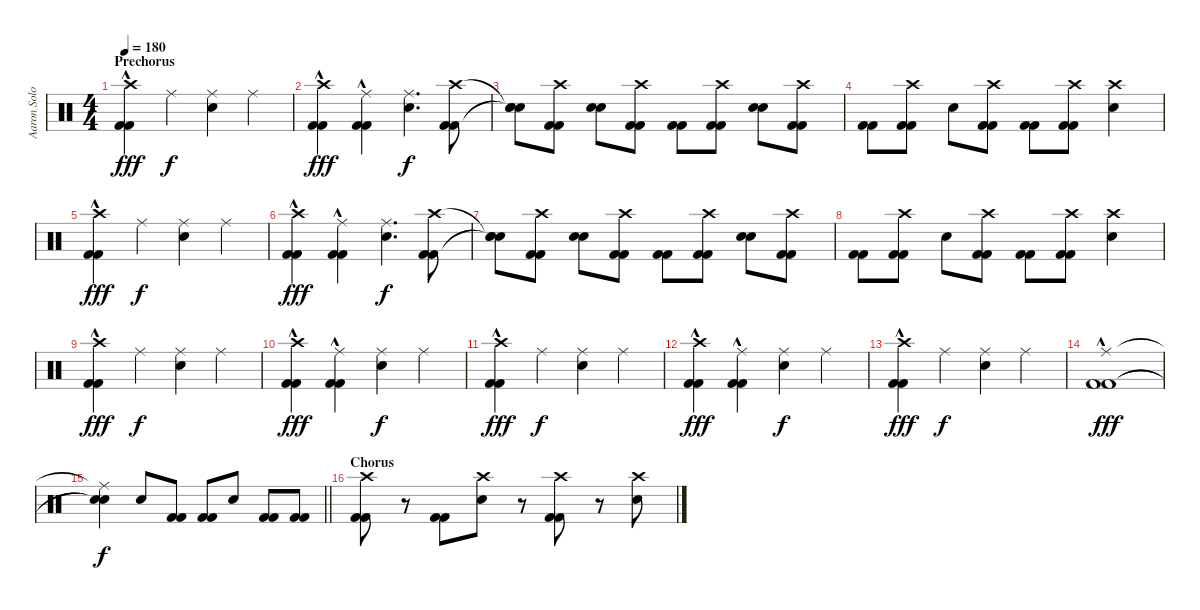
\track ("Aaron Solowoniuk" "Aaron Solo") {instrument percussion}
\staff {score}
\articulation defaults
\ts (4 4)
\section ("" "Prechorus")
\tempo 180
\clef neutral
\ks c
("Crash high (hit)" "Kick (hit) 2" "Kick (hit) 2"{hac}).4{dy fff} "Ride (middle)".4{dy f} ("Ride (middle)" "Electric Snare (hit)").4 "Ride (middle)".4 |
("Crash high (hit)" "Kick (hit) 2" "Kick (hit) 2"{hac}).4{dy fff} ("Ride (middle)" "Kick (hit) 2" "Kick (hit) 2"{hac}).4 ("Ride (middle)" "Electric Snare (hit)").4{d dy f} ("Crash high (hit)" "Kick (hit) 2" "Kick (hit) 2").8 |
("Snare (hit)"{t} "Snare (hit)"{t} "Snare (hit)"{t}).8 ("Crash high (hit)" "Kick (hit) 2" "Kick (hit) 2").8 ("Electric Snare (hit)" "Electric Snare (hit)").8 ("Crash high (hit)" "Kick (hit) 2" "Kick (hit) 2").8 ("Kick (hit) 2" "Kick (hit) 2").8 ("Crash high (hit)" "Kick (hit) 2" "Kick (hit) 2").8 ("Electric Snare (hit)" "Electric Snare (hit)").8 ("Crash high (hit)" "Kick (hit) 2" "Kick (hit) 2").8 |
("Kick (hit) 2" "Kick (hit) 2").8 ("Crash high (hit)" "Kick (hit) 2" "Kick (hit) 2").8 "Electric Snare (hit)".8 ("Crash high (hit)" "Kick (hit) 2" "Kick (hit) 2").8 ("Kick (hit) 2" "Kick (hit) 2").8 ("Crash high (hit)" "Kick (hit) 2" "Kick (hit) 2").8 ("Crash high (hit)" "Electric Snare (hit)").4 |
("Crash high (hit)" "Kick (hit) 2" "Kick (hit) 2"{hac}).4{dy fff} "Ride (middle)".4{dy f} ("Ride (middle)" "Electric Snare (hit)").4 "Ride (middle)".4 |
("Crash high (hit)" "Kick (hit) 2" "Kick (hit) 2"{hac}).4{dy fff} ("Ride (middle)" "Kick (hit) 2" "Kick (hit) 2"{hac}).4 ("Ride (middle)" "Electric Snare (hit)").4{d dy f} ("Crash high (hit)" "Kick (hit) 2" "Kick (hit) 2").8 |
("Snare (hit)"{t} "Snare (hit)"{t} "Snare (hit)"{t}).8 ("Crash high (hit)" "Kick (hit) 2" "Kick (hit) 2").8 ("Electric Snare (hit)" "Electric Snare (hit)").8 ("Crash high (hit)" "Kick (hit) 2" "Kick (hit) 2").8 ("Kick (hit) 2" "Kick (hit) 2").8 ("Crash high (hit)" "Kick (hit) 2" "Kick (hit) 2").8 ("Electric Snare (hit)" "Electric Snare (hit)").8 ("Crash high (hit)" "Kick (hit) 2" "Kick (hit) 2").8 |
("Kick (hit) 2" "Kick (hit) 2").8 ("Crash high (hit)" "Kick (hit) 2" "Kick (hit) 2").8 "Electric Snare (hit)".8 ("Crash high (hit)" "Kick (hit) 2" "Kick (hit) 2").8 ("Kick (hit) 2" "Kick (hit) 2").8 ("Crash high (hit)" "Kick (hit) 2" "Kick (hit) 2").8 ("Crash high (hit)" "Electric Snare (hit)").4 |
("Crash high (hit)" "Kick (hit) 2" "Kick (hit) 2"{hac}).4{dy fff} "Ride (middle)".4{dy f} ("Ride (middle)" "Electric Snare (hit)").4 "Ride (middle)".4 |
("Crash high (hit)" "Kick (hit) 2" "Kick (hit) 2"{hac}).4{dy fff} ("Ride (middle)" "Kick (hit) 2" "Kick (hit) 2"{hac}).4 ("Ride (middle)" "Electric Snare (hit)").4{dy f} "Ride (middle)".4 |
("Crash high (hit)" "Kick (hit) 2" "Kick (hit) 2"{hac}).4{dy fff} "Ride (middle)".4{dy f} ("Ride (middle)" "Electric Snare (hit)").4 "Ride (middle)".4 |
("Crash high (hit)" "Kick (hit) 2" "Kick (hit) 2"{hac}).4{dy fff} ("Ride (middle)" "Kick (hit) 2" "Kick (hit) 2"{hac}).4 ("Ride (middle)" "Electric Snare (hit)").4{dy f} "Ride (middle)".4 |
("Crash high (hit)" "Kick (hit) 2" "Kick (hit) 2"{hac}).4{dy fff} "Ride (middle)".4{dy f} ("Ride (middle)" "Electric Snare (hit)").4 "Ride (middle)".4 |
("Ride (middle)" "Kick (hit) 2" "Kick (hit) 2"{hac}).1{dy fff} |
\barLineRight lightlight
("Ride (middle)"{t} "Snare (hit)"{t} "Snare (hit)"{t}).4{dy f} "Electric Snare (hit)".8 ("Kick (hit) 2" "Kick (hit) 2").8 ("Kick (hit) 2" "Kick (hit) 2").8 "Electric Snare (hit)".8 ("Kick (hit) 2" "Kick (hit) 2").8 ("Kick (hit) 2" "Kick (hit) 2").8 |
\section ("" "Chorus")
("Crash high (hit)" "Kick (hit) 2" "Kick (hit) 2").8 r.8 ("Kick (hit) 2" "Kick (hit) 2").8 ("Crash high (hit)" "Electric Snare (hit)").8 r.8 ("Crash high (hit)" "Kick (hit) 2" "Kick (hit) 2").8 r.8 ("Crash high (hit)" "Electric Snare (hit)").8
